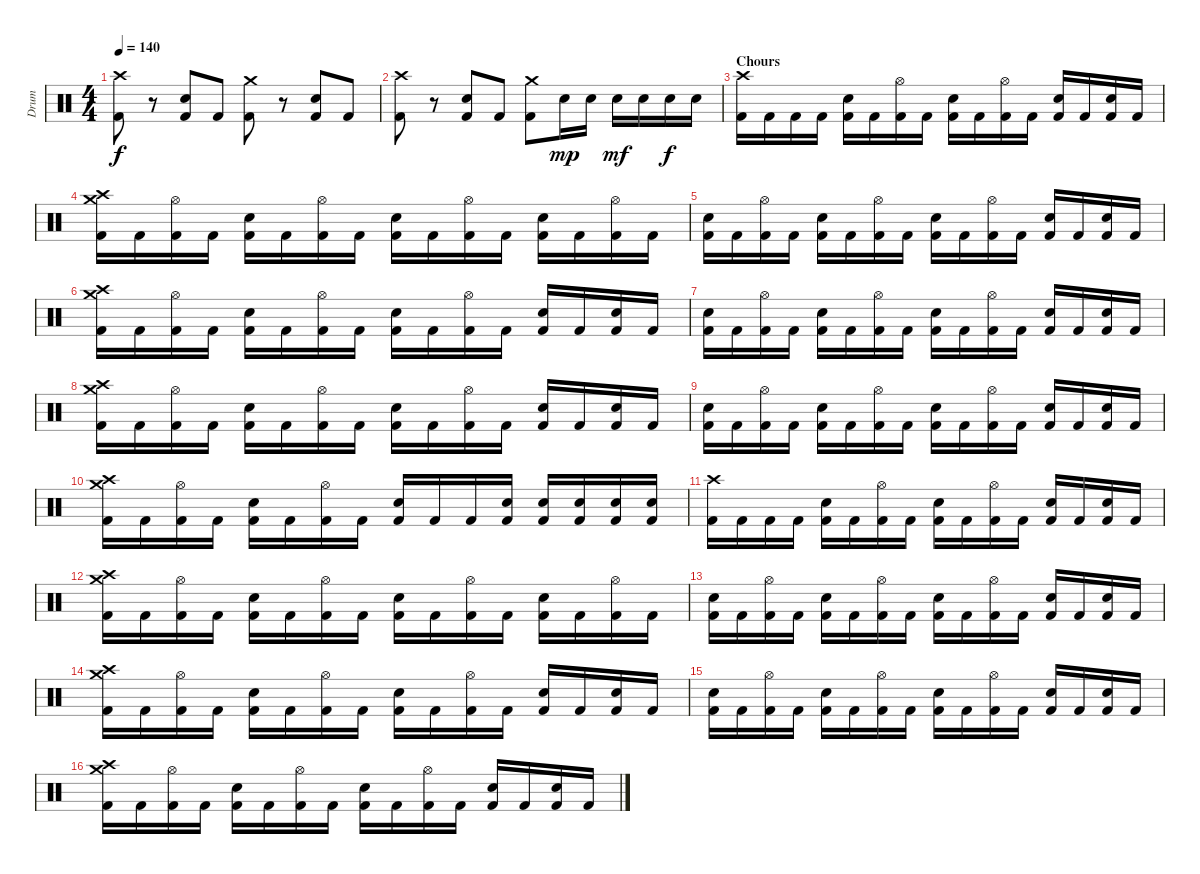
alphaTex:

\track ("Drum" "Drum") {instrument percussion}
\staff {score}
\articulation defaults
\ts (4 4)
\tempo 140
\clef neutral
\ks c
("Crash high (hit)" "Kick (hit) 2").8{dy f} r.8 ("Electric Snare (hit)" "Kick (hit) 2").8 "Kick (hit) 2".8 ("Crash medium (hit)" "Kick (hit) 2").8 r.8 ("Electric Snare (hit)" "Kick (hit) 2").8 "Kick (hit) 2".8 |
("Crash high (hit)" "Kick (hit) 2").8 r.8 ("Electric Snare (hit)" "Kick (hit) 2").8 "Kick (hit) 2".8 ("Crash medium (hit)" "Kick (hit) 2").8 "Electric Snare (hit)".16{dy mp} "Electric Snare (hit)".16 "Electric Snare (hit)".16{dy mf} "Electric Snare (hit)".16 "Electric Snare (hit)".16{dy f} "Electric Snare (hit)".16 |
\section ("" "Chours")
("Crash high (hit)" "Kick (hit) 2").16 "Kick (hit) 2".16 "Kick (hit) 2".16 "Kick (hit) 2".16 ("Electric Snare (hit)" "Kick (hit) 2").16 "Kick (hit) 2".16 ("Hi-Hat (open)" "Kick (hit) 2").16 "Kick (hit) 2".16 ("Electric Snare (hit)" "Kick (hit) 2").16 "Kick (hit) 2".16 ("Hi-Hat (open)" "Kick (hit) 2").16 "Kick (hit) 2".16 ("Electric Snare (hit)" "Kick (hit) 2").16 "Kick (hit) 2".16 ("Electric Snare (hit)" "Kick (hit) 2").16 "Kick (hit) 2".16 |
("Crash medium (hit)" "Crash high (hit)" "Kick (hit) 2").16 "Kick (hit) 2".16 ("Hi-Hat (open)" "Kick (hit) 2").16 "Kick (hit) 2".16 ("Electric Snare (hit)" "Kick (hit) 2").16 "Kick (hit) 2".16 ("Hi-Hat (open)" "Kick (hit) 2").16 "Kick (hit) 2".16 ("Electric Snare (hit)" "Kick (hit) 2").16 "Kick (hit) 2".16 ("Hi-Hat (open)" "Kick (hit) 2").16 "Kick (hit) 2".16 ("Electric Snare (hit)" "Kick (hit) 2").16 "Kick (hit) 2".16 ("Hi-Hat (open)" "Kick (hit) 2").16 "Kick (hit) 2".16 |
("Electric Snare (hit)" "Kick (hit) 2").16 "Kick (hit) 2".16 ("Hi-Hat (open)" "Kick (hit) 2").16 "Kick (hit) 2".16 ("Electric Snare (hit)" "Kick (hit) 2").16 "Kick (hit) 2".16 ("Hi-Hat (open)" "Kick (hit) 2").16 "Kick (hit) 2".16 ("Electric Snare (hit)" "Kick (hit) 2").16 "Kick (hit) 2".16 ("Hi-Hat (open)" "Kick (hit) 2").16 "Kick (hit) 2".16 ("Electric Snare (hit)" "Kick (hit) 2").16 "Kick (hit) 2".16 ("Electric Snare (hit)" "Kick (hit) 2").16 "Kick (hit) 2".16 |
("Crash medium (hit)" "Crash high (hit)" "Kick (hit) 2").16 "Kick (hit) 2".16 ("Hi-Hat (open)" "Kick (hit) 2").16 "Kick (hit) 2".16 ("Electric Snare (hit)" "Kick (hit) 2").16 "Kick (hit) 2".16 ("Hi-Hat (open)" "Kick (hit) 2").16 "Kick (hit) 2".16 ("Electric Snare (hit)" "Kick (hit) 2").16 "Kick (hit) 2".16 ("Hi-Hat (open)" "Kick (hit) 2").16 "Kick (hit) 2".16 ("Electric Snare (hit)" "Kick (hit) 2").16 "Kick (hit) 2".16 ("Electric Snare (hit)" "Kick (hit) 2").16 "Kick (hit) 2".16 |
("Electric Snare (hit)" "Kick (hit) 2").16 "Kick (hit) 2".16 ("Hi-Hat (open)" "Kick (hit) 2").16 "Kick (hit) 2".16 ("Electric Snare (hit)" "Kick (hit) 2").16 "Kick (hit) 2".16 ("Hi-Hat (open)" "Kick (hit) 2").16 "Kick (hit) 2".16 ("Electric Snare (hit)" "Kick (hit) 2").16 "Kick (hit) 2".16 ("Hi-Hat (open)" "Kick (hit) 2").16 "Kick (hit) 2".16 ("Electric Snare (hit)" "Kick (hit) 2").16 "Kick (hit) 2".16 ("Electric Snare (hit)" "Kick (hit) 2").16 "Kick (hit) 2".16 |
("Crash medium (hit)" "Crash high (hit)" "Kick (hit) 2").16 "Kick (hit) 2".16 ("Hi-Hat (open)" "Kick (hit) 2").16 "Kick (hit) 2".16 ("Electric Snare (hit)" "Kick (hit) 2").16 "Kick (hit) 2".16 ("Hi-Hat (open)" "Kick (hit) 2").16 "Kick (hit) 2".16 ("Electric Snare (hit)" "Kick (hit) 2").16 "Kick (hit) 2".16 ("Hi-Hat (open)" "Kick (hit) 2").16 "Kick (hit) 2".16 ("Electric Snare (hit)" "Kick (hit) 2").16 "Kick (hit) 2".16 ("Electric Snare (hit)" "Kick (hit) 2").16 "Kick (hit) 2".16 |
("Electric Snare (hit)" "Kick (hit) 2").16 "Kick (hit) 2".16 ("Hi-Hat (open)" "Kick (hit) 2").16 "Kick (hit) 2".16 ("Electric Snare (hit)" "Kick (hit) 2").16 "Kick (hit) 2".16 ("Hi-Hat (open)" "Kick (hit) 2").16 "Kick (hit) 2".16 ("Electric Snare (hit)" "Kick (hit) 2").16 "Kick (hit) 2".16 ("Hi-Hat (open)" "Kick (hit) 2").16 "Kick (hit) 2".16 ("Electric Snare (hit)" "Kick (hit) 2").16 "Kick (hit) 2".16 ("Electric Snare (hit)" "Kick (hit) 2").16 "Kick (hit) 2".16 |
("Crash medium (hit)" "Crash high (hit)" "Kick (hit) 2").16 "Kick (hit) 2".16 ("Hi-Hat (open)" "Kick (hit) 2").16 "Kick (hit) 2".16 ("Electric Snare (hit)" "Kick (hit) 2").16 "Kick (hit) 2".16 ("Hi-Hat (open)" "Kick (hit) 2").16 "Kick (hit) 2".16 ("Electric Snare (hit)" "Kick (hit) 2").16 "Kick (hit) 2".16 "Kick (hit) 2".16 ("Electric Snare (hit)" "Kick (hit) 2").16 ("Electric Snare (hit)" "Kick (hit) 2").16 ("Electric Snare (hit)" "Kick (hit) 2").16 ("Electric Snare (hit)" "Kick (hit) 2").16 ("Electric Snare (hit)" "Kick (hit) 2").16 |
("Crash high (hit)" "Kick (hit) 2").16 "Kick (hit) 2".16 "Kick (hit) 2".16 "Kick (hit) 2".16 ("Electric Snare (hit)" "Kick (hit) 2").16 "Kick (hit) 2".16 ("Hi-Hat (open)" "Kick (hit) 2").16 "Kick (hit) 2".16 ("Electric Snare (hit)" "Kick (hit) 2").16 "Kick (hit) 2".16 ("Hi-Hat (open)" "Kick (hit) 2").16 "Kick (hit) 2".16 ("Electric Snare (hit)" "Kick (hit) 2").16 "Kick (hit) 2".16 ("Electric Snare (hit)" "Kick (hit) 2").16 "Kick (hit) 2".16 |
("Crash medium (hit)" "Crash high (hit)" "Kick (hit) 2").16 "Kick (hit) 2".16 ("Hi-Hat (open)" "Kick (hit) 2").16 "Kick (hit) 2".16 ("Electric Snare (hit)" "Kick (hit) 2").16 "Kick (hit) 2".16 ("Hi-Hat (open)" "Kick (hit) 2").16 "Kick (hit) 2".16 ("Electric Snare (hit)" "Kick (hit) 2").16 "Kick (hit) 2".16 ("Hi-Hat (open)" "Kick (hit) 2").16 "Kick (hit) 2".16 ("Electric Snare (hit)" "Kick (hit) 2").16 "Kick (hit) 2".16 ("Hi-Hat (open)" "Kick (hit) 2").16 "Kick (hit) 2".16 |
("Electric Snare (hit)" "Kick (hit) 2").16 "Kick (hit) 2".16 ("Hi-Hat (open)" "Kick (hit) 2").16 "Kick (hit) 2".16 ("Electric Snare (hit)" "Kick (hit) 2").16 "Kick (hit) 2".16 ("Hi-Hat (open)" "Kick (hit) 2").16 "Kick (hit) 2".16 ("Electric Snare (hit)" "Kick (hit) 2").16 "Kick (hit) 2".16 ("Hi-Hat (open)" "Kick (hit) 2").16 "Kick (hit) 2".16 ("Electric Snare (hit)" "Kick (hit) 2").16 "Kick (hit) 2".16 ("Electric Snare (hit)" "Kick (hit) 2").16 "Kick (hit) 2".16 |
("Crash medium (hit)" "Crash high (hit)" "Kick (hit) 2").16 "Kick (hit) 2".16 ("Hi-Hat (open)" "Kick (hit) 2").16 "Kick (hit) 2".16 ("Electric Snare (hit)" "Kick (hit) 2").16 "Kick (hit) 2".16 ("Hi-Hat (open)" "Kick (hit) 2").16 "Kick (hit) 2".16 ("Electric Snare (hit)" "Kick (hit) 2").16 "Kick (hit) 2".16 ("Hi-Hat (open)" "Kick (hit) 2").16 "Kick (hit) 2".16 ("Electric Snare (hit)" "Kick (hit) 2").16 "Kick (hit) 2".16 ("Electric Snare (hit)" "Kick (hit) 2").16 "Kick (hit) 2".16 |
("Electric Snare (hit)" "Kick (hit) 2").16 "Kick (hit) 2".16 ("Hi-Hat (open)" "Kick (hit) 2").16 "Kick (hit) 2".16 ("Electric Snare (hit)" "Kick (hit) 2").16 "Kick (hit) 2".16 ("Hi-Hat (open)" "Kick (hit) 2").16 "Kick (hit) 2".16 ("Electric Snare (hit)" "Kick (hit) 2").16 "Kick (hit) 2".16 ("Hi-Hat (open)" "Kick (hit) 2").16 "Kick (hit) 2".16 ("Electric Snare (hit)" "Kick (hit) 2").16 "Kick (hit) 2".16 ("Electric Snare (hit)" "Kick (hit) 2").16 "Kick (hit) 2".16 |
("Crash medium (hit)" "Crash high (hit)" "Kick (hit) 2").16 "Kick (hit) 2".16 ("Hi-Hat (open)" "Kick (hit) 2").16 "Kick (hit) 2".16 ("Electric Snare (hit)" "Kick (hit) 2").16 "Kick (hit) 2".16 ("Hi-Hat (open)" "Kick (hit) 2").16 "Kick (hit) 2".16 ("Electric Snare (hit)" "Kick (hit) 2").16 "Kick (hit) 2".16 ("Hi-Hat (open)" "Kick (hit) 2").16 "Kick (hit) 2".16 ("Electric Snare (hit)" "Kick (hit) 2").16 "Kick (hit) 2".16 ("Electric Snare (hit)" "Kick (hit) 2").16 "Kick (hit) 2".16
